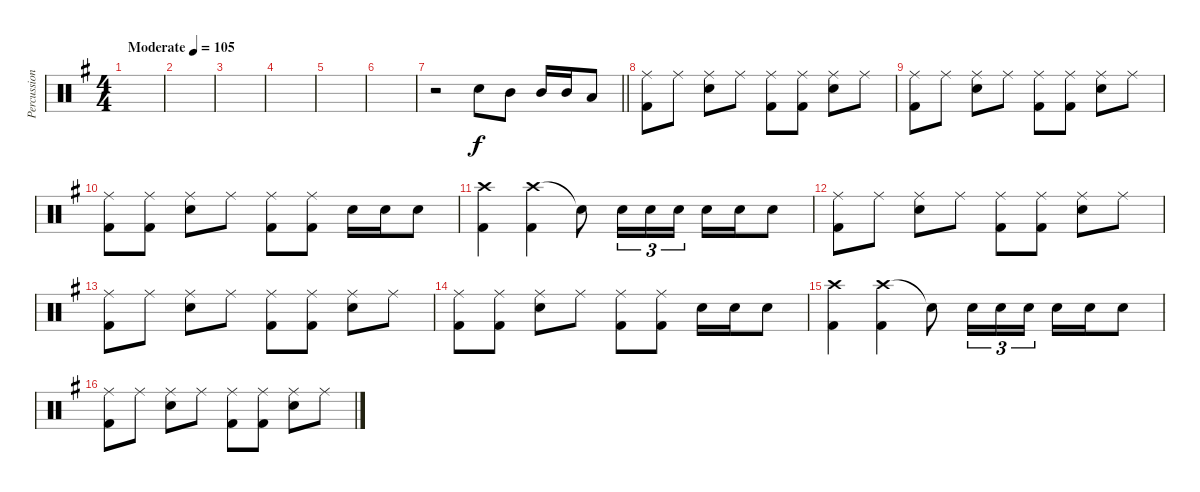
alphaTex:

\track ("Percussion" "Percussion") {instrument percussion}
\staff {score}
\articulation defaults
\ts (4 4)
\tempo (105 "Moderate")
\clef neutral
\ks g
|
|
|
|
|
|
\barLineRight lightlight
r.2 "Snare (hit) 2".8 "Mid Tom (hit)".8 "Mid Tom (hit)".16 "Mid Tom (hit)".16 "Low Floor Tom (hit)".8 |
("Ride (middle)" "Kick (hit) 2").8 "Ride (middle)".8 ("Ride (middle)" "Snare (hit) 2").8 "Ride (middle)".8 ("Ride (middle)" "Kick (hit) 2").8 ("Ride (middle)" "Kick (hit) 2").8 ("Ride (middle)" "Snare (hit) 2").8 "Ride (middle)".8 |
("Ride (middle)" "Kick (hit) 2").8 "Ride (middle)".8 ("Ride (middle)" "Snare (hit) 2").8 "Ride (middle)".8 ("Ride (middle)" "Kick (hit) 2").8 ("Ride (middle)" "Kick (hit) 2").8 ("Ride (middle)" "Snare (hit) 2").8 "Ride (middle)".8 |
("Ride (middle)" "Kick (hit) 2").8 ("Ride (middle)" "Kick (hit) 2").8 ("Ride (middle)" "Snare (hit) 2").8 "Ride (middle)".8 ("Ride (middle)" "Kick (hit) 2").8 ("Ride (middle)" "Kick (hit) 2").8 "Snare (hit) 2".16 "Snare (hit) 2".16 "Snare (hit) 2".8 |
("Crash high (hit)" "Kick (hit) 2").4 ("Crash high (hit)" "Kick (hit) 2").4 "Snare (hit)"{t}.8 "Snare (hit) 2".16{tu (3 2)} "Snare (hit) 2".16{tu (3 2)} "Snare (hit) 2".16{tu (3 2)} "Snare (hit) 2".16 "Snare (hit) 2".16 "Snare (hit) 2".8 |
("Ride (middle)" "Kick (hit) 2").8 "Ride (middle)".8 ("Ride (middle)" "Snare (hit) 2").8 "Ride (middle)".8 ("Ride (middle)" "Kick (hit) 2").8 ("Ride (middle)" "Kick (hit) 2").8 ("Ride (middle)" "Snare (hit) 2").8 "Ride (middle)".8 |
("Ride (middle)" "Kick (hit) 2").8 "Ride (middle)".8 ("Ride (middle)" "Snare (hit) 2").8 "Ride (middle)".8 ("Ride (middle)" "Kick (hit) 2").8 ("Ride (middle)" "Kick (hit) 2").8 ("Ride (middle)" "Snare (hit) 2").8 "Ride (middle)".8 |
("Ride (middle)" "Kick (hit) 2").8 ("Ride (middle)" "Kick (hit) 2").8 ("Ride (middle)" "Snare (hit) 2").8 "Ride (middle)".8 ("Ride (middle)" "Kick (hit) 2").8 ("Ride (middle)" "Kick (hit) 2").8 "Snare (hit) 2".16 "Snare (hit) 2".16 "Snare (hit) 2".8 |
("Crash high (hit)" "Kick (hit) 2").4 ("Crash high (hit)" "Kick (hit) 2").4 "Snare (hit)"{t}.8 "Snare (hit) 2".16{tu (3 2)} "Snare (hit) 2".16{tu (3 2)} "Snare (hit) 2".16{tu (3 2)} "Snare (hit) 2".16 "Snare (hit) 2".16 "Snare (hit) 2".8 |
("Ride (middle)" "Kick (hit) 2").8 "Ride (middle)".8 ("Ride (middle)" "Snare (hit) 2").8 "Ride (middle)".8 ("Ride (middle)" "Kick (hit) 2").8 ("Ride (middle)" "Kick (hit) 2").8 ("Ride (middle)" "Snare (hit) 2").8 "Ride (middle)".8
